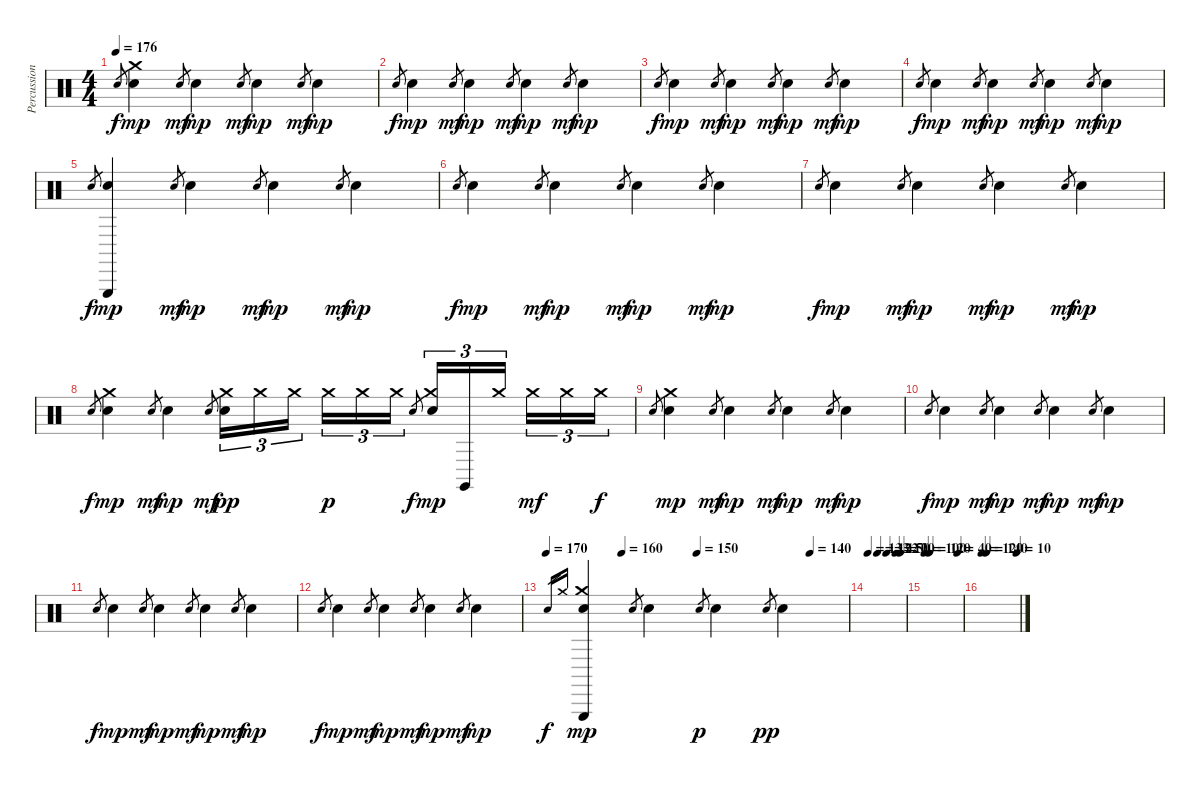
\track ("Percussion" "Percussion") {instrument percussion}
\staff {score}
\articulation defaults
\ts (4 4)
\tempo 176
\clef neutral
\ks c "Hand Clap (hit)".8{gr dy f}
("Hand Clap (hit)" "Crash medium (hit)").4{dy mp} "Hand Clap (hit)".8{gr dy mf} "Hand Clap (hit)".4{dy mp} "Hand Clap (hit)".8{gr dy mf} "Hand Clap (hit)".4{dy mp} "Hand Clap (hit)".8{gr dy mf} "Hand Clap (hit)".4{dy mp} |
"Hand Clap (hit)".8{gr dy f} "Hand Clap (hit)".4{dy mp} "Hand Clap (hit)".8{gr dy mf} "Hand Clap (hit)".4{dy mp} "Hand Clap (hit)".8{gr dy mf} "Hand Clap (hit)".4{dy mp} "Hand Clap (hit)".8{gr dy mf} "Hand Clap (hit)".4{dy mp} |
"Hand Clap (hit)".8{gr dy f} "Hand Clap (hit)".4{dy mp} "Hand Clap (hit)".8{gr dy mf} "Hand Clap (hit)".4{dy mp} "Hand Clap (hit)".8{gr dy mf} "Hand Clap (hit)".4{dy mp} "Hand Clap (hit)".8{gr dy mf} "Hand Clap (hit)".4{dy mp} |
"Hand Clap (hit)".8{gr dy f} "Hand Clap (hit)".4{dy mp} "Hand Clap (hit)".8{gr dy mf} "Hand Clap (hit)".4{dy mp} "Hand Clap (hit)".8{gr dy mf} "Hand Clap (hit)".4{dy mp} "Hand Clap (hit)".8{gr dy mf} "Hand Clap (hit)".4{dy mp} |
"Hand Clap (hit)".8{gr dy f} ("Hand Clap (hit)" "Triangle (hit)").4{dy mp} "Hand Clap (hit)".8{gr dy mf} "Hand Clap (hit)".4{dy mp} "Hand Clap (hit)".8{gr dy mf} "Hand Clap (hit)".4{dy mp} "Hand Clap (hit)".8{gr dy mf} "Hand Clap (hit)".4{dy mp} |
"Hand Clap (hit)".8{gr dy f} "Hand Clap (hit)".4{dy mp} "Hand Clap (hit)".8{gr dy mf} "Hand Clap (hit)".4{dy mp} "Hand Clap (hit)".8{gr dy mf} "Hand Clap (hit)".4{dy mp} "Hand Clap (hit)".8{gr dy mf} "Hand Clap (hit)".4{dy mp} |
"Hand Clap (hit)".8{gr dy f} "Hand Clap (hit)".4{dy mp} "Hand Clap (hit)".8{gr dy mf} "Hand Clap (hit)".4{dy mp} "Hand Clap (hit)".8{gr dy mf} "Hand Clap (hit)".4{dy mp} "Hand Clap (hit)".8{gr dy mf} "Hand Clap (hit)".4{dy mp} |
"Hand Clap (hit)".8{gr dy f} ("Hand Clap (hit)" "Crash medium (hit)").4{dy mp} "Hand Clap (hit)".8{gr dy mf} "Hand Clap (hit)".4{dy mp} "Hand Clap (hit)".8{gr dy mf} ("Hand Clap (hit)" "Crash medium (hit)").16{tu (3 2) dy pp} "Crash medium (hit)".16{tu (3 2)} "Crash medium (hit)".16{tu (3 2)} "Crash medium (hit)".16{tu (3 2) dy p} "Crash medium (hit)".16{tu (3 2)} "Crash medium (hit)".16{tu (3 2)} "Hand Clap (hit)".8{gr dy f} ("Hand Clap (hit)" "Crash medium (hit)").16{tu (3 2) dy mp} "Claves (hit)".16{tu (3 2)} "Crash medium (hit)".16{tu (3 2)} "Crash medium (hit)".16{tu (3 2) dy mf} "Crash medium (hit)".16{tu (3 2)} "Crash medium (hit)".16{tu (3 2) dy f} |
"Hand Clap (hit)".8{gr} ("Hand Clap (hit)" "Crash medium (hit)").4{dy mp} "Hand Clap (hit)".8{gr dy mf} "Hand Clap (hit)".4{dy mp} "Hand Clap (hit)".8{gr dy mf} "Hand Clap (hit)".4{dy mp} "Hand Clap (hit)".8{gr dy mf} "Hand Clap (hit)".4{dy mp} |
"Hand Clap (hit)".8{gr dy f} "Hand Clap (hit)".4{dy mp} "Hand Clap (hit)".8{gr dy mf} "Hand Clap (hit)".4{dy mp} "Hand Clap (hit)".8{gr dy mf} "Hand Clap (hit)".4{dy mp} "Hand Clap (hit)".8{gr dy mf} "Hand Clap (hit)".4{dy mp} |
"Hand Clap (hit)".8{gr dy f} "Hand Clap (hit)".4{dy mp} "Hand Clap (hit)".8{gr dy mf} "Hand Clap (hit)".4{dy mp} "Hand Clap (hit)".8{gr dy mf} "Hand Clap (hit)".4{dy mp} "Hand Clap (hit)".8{gr dy mf} "Hand Clap (hit)".4{dy mp} |
"Hand Clap (hit)".8{gr dy f} "Hand Clap (hit)".4{dy mp} "Hand Clap (hit)".8{gr dy mf} "Hand Clap (hit)".4{dy mp} "Hand Clap (hit)".8{gr dy mf} "Hand Clap (hit)".4{dy mp} "Hand Clap (hit)".8{gr dy mf} "Hand Clap (hit)".4{dy mp} |
\tempo 170
\tempo (160 0.25)
\tempo (150 0.5)
\tempo (140 0.875)
"Hand Clap (hit)".16{gr dy f} "Crash medium (hit)".16{gr} ("Hand Clap (hit)" "Triangle (hit)" "Crash medium (hit)").4{dy mp} "Hand Clap (hit)".8{gr} "Hand Clap (hit)".4 "Hand Clap (hit)".8{gr dy p} "Hand Clap (hit)".4 "Hand Clap (hit)".8{gr dy pp} "Hand Clap (hit)".4 |
\tempo 133
\tempo (122 0.25)
\tempo (110 0.5)
\tempo (50 0.75)
\tempo (20 0.875)
|
\tempo 100
\tempo (120 0.125)
\tempo (40 0.875)
|
\tempo 120
\tempo (140 0.125)
\tempo (10 0.9375)
